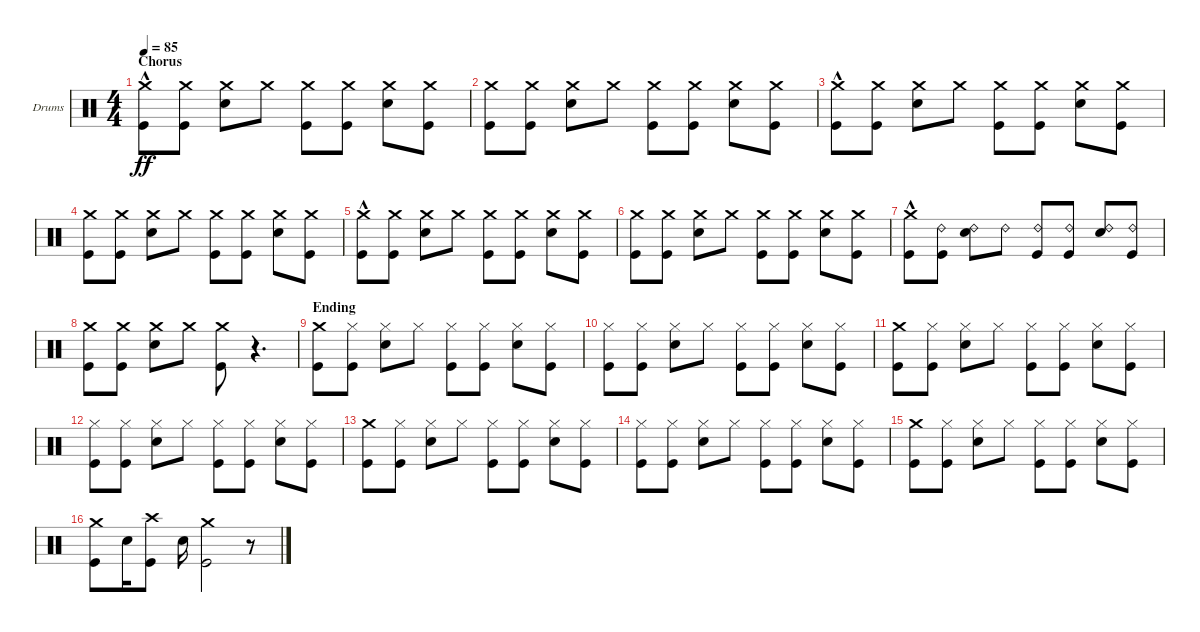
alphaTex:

\bracketExtendMode groupsimilarinstruments
\firstSystemTrackNameOrientation horizontal
\otherSystemsTrackNameOrientation horizontal
\track ("Drumkit" "Drums") {instrument percussion}
\staff {score}
\articulation defaults
\ts (4 4)
\section ("" "Chorus")
\tempo 85
\clef neutral
\ks c
("Kick (hit)"{hac} "Crash medium (hit)"{hac}).8{dy ff} ("Kick (hit)" "Crash medium (hit)").8 ("Snare (hit) 2" "Crash medium (hit)").8 "Crash medium (hit)".8 ("Kick (hit)" "Crash medium (hit)").8 ("Kick (hit)" "Crash medium (hit)").8 ("Snare (hit) 2" "Crash medium (hit)").8 ("Kick (hit)" "Crash medium (hit)").8 |
("Kick (hit)" "Crash medium (hit)").8 ("Kick (hit)" "Crash medium (hit)").8 ("Snare (hit) 2" "Crash medium (hit)").8 "Crash medium (hit)".8 ("Kick (hit)" "Crash medium (hit)").8 ("Kick (hit)" "Crash medium (hit)").8 ("Snare (hit) 2" "Crash medium (hit)").8 ("Kick (hit)" "Crash medium (hit)").8 |
("Kick (hit)"{hac} "Crash medium (hit)"{hac}).8 ("Kick (hit)" "Crash medium (hit)").8 ("Snare (hit) 2" "Crash medium (hit)").8 "Crash medium (hit)".8 ("Kick (hit)" "Crash medium (hit)").8 ("Kick (hit)" "Crash medium (hit)").8 ("Snare (hit) 2" "Crash medium (hit)").8 ("Kick (hit)" "Crash medium (hit)").8 |
("Kick (hit)" "Crash medium (hit)").8 ("Kick (hit)" "Crash medium (hit)").8 ("Snare (hit) 2" "Crash medium (hit)").8 "Crash medium (hit)".8 ("Kick (hit)" "Crash medium (hit)").8 ("Kick (hit)" "Crash medium (hit)").8 ("Snare (hit) 2" "Crash medium (hit)").8 ("Kick (hit)" "Crash medium (hit)").8 |
("Kick (hit)"{hac} "Crash medium (hit)"{hac}).8 ("Kick (hit)" "Crash medium (hit)").8 ("Snare (hit) 2" "Crash medium (hit)").8 "Crash medium (hit)".8 ("Kick (hit)" "Crash medium (hit)").8 ("Kick (hit)" "Crash medium (hit)").8 ("Snare (hit) 2" "Crash medium (hit)").8 ("Kick (hit)" "Crash medium (hit)").8 |
("Kick (hit)" "Crash medium (hit)").8 ("Kick (hit)" "Crash medium (hit)").8 ("Snare (hit) 2" "Crash medium (hit)").8 "Crash medium (hit)".8 ("Kick (hit)" "Crash medium (hit)").8 ("Kick (hit)" "Crash medium (hit)").8 ("Snare (hit) 2" "Crash medium (hit)").8 ("Kick (hit)" "Crash medium (hit)").8 |
("Kick (hit)"{hac} "Crash medium (hit)"{hac}).8 ("Kick (hit)" "Ride (bell) 2").8 ("Snare (hit) 2" "Ride (bell) 2").8 "Ride (bell) 2".8 ("Kick (hit)" "Ride (bell) 2").8 ("Kick (hit)" "Ride (bell) 2").8 ("Snare (hit) 2" "Ride (bell) 2").8 ("Kick (hit)" "Ride (bell) 2").8 |
("Kick (hit)" "Crash medium (hit)").8 ("Kick (hit)" "Crash medium (hit)").8 ("Snare (hit) 2" "Crash medium (hit)").8 "Crash medium (hit)".8 ("Kick (hit)" "Crash medium (hit)").8 r.4{d} |
\section ("" "Ending")
("Kick (hit)" "Crash medium (hit)").8 ("Kick (hit)" "Hi-Hat (closed)").8 ("Snare (hit) 2" "Hi-Hat (closed)").8 "Hi-Hat (closed)".8 ("Kick (hit)" "Hi-Hat (closed)").8 ("Kick (hit)" "Hi-Hat (closed)").8 ("Snare (hit) 2" "Hi-Hat (closed)").8 ("Kick (hit)" "Hi-Hat (closed)").8 |
("Kick (hit)" "Hi-Hat (closed)").8 ("Kick (hit)" "Hi-Hat (closed)").8 ("Snare (hit) 2" "Hi-Hat (closed)").8 "Hi-Hat (closed)".8 ("Kick (hit)" "Hi-Hat (closed)").8 ("Kick (hit)" "Hi-Hat (closed)").8 ("Snare (hit) 2" "Hi-Hat (closed)").8 ("Kick (hit)" "Hi-Hat (closed)").8 |
("Kick (hit)" "Crash medium (hit)").8 ("Kick (hit)" "Hi-Hat (closed)").8 ("Snare (hit) 2" "Hi-Hat (closed)").8 "Hi-Hat (closed)".8 ("Kick (hit)" "Hi-Hat (closed)").8 ("Kick (hit)" "Hi-Hat (closed)").8 ("Snare (hit) 2" "Hi-Hat (closed)").8 ("Kick (hit)" "Hi-Hat (closed)").8 |
("Kick (hit)" "Hi-Hat (closed)").8 ("Kick (hit)" "Hi-Hat (closed)").8 ("Snare (hit) 2" "Hi-Hat (closed)").8 "Hi-Hat (closed)".8 ("Kick (hit)" "Hi-Hat (closed)").8 ("Kick (hit)" "Hi-Hat (closed)").8 ("Snare (hit) 2" "Hi-Hat (closed)").8 ("Kick (hit)" "Hi-Hat (closed)").8 |
("Kick (hit)" "Crash medium (hit)").8 ("Kick (hit)" "Hi-Hat (closed)").8 ("Snare (hit) 2" "Hi-Hat (closed)").8 "Hi-Hat (closed)".8 ("Kick (hit)" "Hi-Hat (closed)").8 ("Kick (hit)" "Hi-Hat (closed)").8 ("Snare (hit) 2" "Hi-Hat (closed)").8 ("Kick (hit)" "Hi-Hat (closed)").8 |
("Kick (hit)" "Hi-Hat (closed)").8 ("Kick (hit)" "Hi-Hat (closed)").8 ("Snare (hit) 2" "Hi-Hat (closed)").8 "Hi-Hat (closed)".8 ("Kick (hit)" "Hi-Hat (closed)").8 ("Kick (hit)" "Hi-Hat (closed)").8 ("Snare (hit) 2" "Hi-Hat (closed)").8 ("Kick (hit)" "Hi-Hat (closed)").8 |
("Kick (hit)" "Crash medium (hit)").8 ("Kick (hit)" "Hi-Hat (closed)").8 ("Snare (hit) 2" "Hi-Hat (closed)").8 "Hi-Hat (closed)".8 ("Kick (hit)" "Hi-Hat (closed)").8 ("Kick (hit)" "Hi-Hat (closed)").8 ("Snare (hit) 2" "Hi-Hat (closed)").8 ("Kick (hit)" "Hi-Hat (closed)").8 |
("Crash medium (hit)" "Kick (hit)").8 "Snare (hit) 2".16 ("Kick (hit)" "Crash high (hit)").8 "Snare (hit) 2".16 ("Kick (hit)" "Crash medium (hit)").2 r.8
